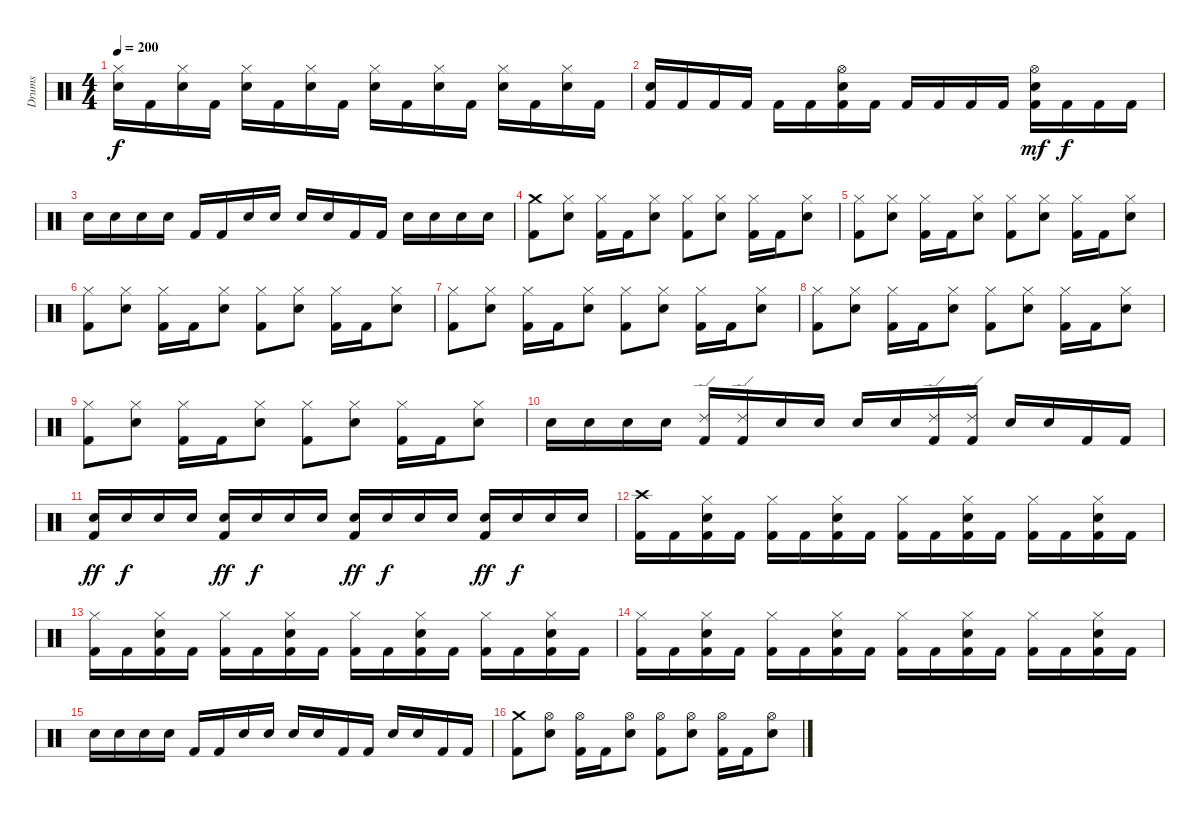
\track ("Drums" "Drums") {instrument percussion}
\staff {score}
\articulation defaults
\ts (4 4)
\tempo 200
\clef neutral
\ks c
("Snare (hit) 2" "Hi-Hat (closed)").16{dy f} "Kick (hit) 2".16 ("Snare (hit) 2" "Hi-Hat (closed)").16 "Kick (hit) 2".16 ("Snare (hit) 2" "Hi-Hat (closed)").16 "Kick (hit) 2".16 ("Snare (hit) 2" "Hi-Hat (closed)").16 "Kick (hit) 2".16 ("Snare (hit) 2" "Hi-Hat (closed)").16 "Kick (hit) 2".16 ("Snare (hit) 2" "Hi-Hat (closed)").16 "Kick (hit) 2".16 ("Snare (hit) 2" "Hi-Hat (closed)").16 "Kick (hit) 2".16 ("Snare (hit) 2" "Hi-Hat (closed)").16 "Kick (hit) 2".16 |
("Kick (hit) 2" "Snare (hit) 2").16 "Kick (hit) 2".16 "Kick (hit) 2".16 "Kick (hit) 2".16 "Kick (hit) 2".16 "Kick (hit) 2".16 ("Kick (hit) 2" "Snare (hit) 2" "Hi-Hat (open)").16 "Kick (hit) 2".16 "Kick (hit) 2".16 "Kick (hit) 2".16 "Kick (hit) 2".16 "Kick (hit) 2".16 ("Kick (hit) 2" "Snare (hit) 2" "Hi-Hat (open)").16{dy mf} "Kick (hit) 2".16{dy f} "Kick (hit) 2".16 "Kick (hit) 2".16 |
"Snare (hit) 2".16 "Snare (hit) 2".16 "Snare (hit) 2".16 "Snare (hit) 2".16 "Kick (hit) 2".16 "Kick (hit) 2".16 "Snare (hit) 2".16 "Snare (hit) 2".16 "Snare (hit) 2".16 "Snare (hit) 2".16 "Kick (hit) 2".16 "Kick (hit) 2".16 "Snare (hit) 2".16 "Snare (hit) 2".16 "Snare (hit) 2".16 "Snare (hit) 2".16 |
\section ("" "")
("Kick (hit) 2" "Crash medium (hit)").8 ("Snare (hit) 2" "Hi-Hat (closed)").8 ("Kick (hit) 2" "Hi-Hat (closed)").16 "Kick (hit) 2".16 ("Snare (hit) 2" "Hi-Hat (closed)").8 ("Kick (hit) 2" "Hi-Hat (closed)").8 ("Snare (hit) 2" "Hi-Hat (closed)").8 ("Kick (hit) 2" "Hi-Hat (closed)").16 "Kick (hit) 2".16 ("Snare (hit) 2" "Hi-Hat (closed)").8 |
("Kick (hit) 2" "Hi-Hat (closed)").8 ("Snare (hit) 2" "Hi-Hat (closed)").8 ("Kick (hit) 2" "Hi-Hat (closed)").16 "Kick (hit) 2".16 ("Snare (hit) 2" "Hi-Hat (closed)").8 ("Kick (hit) 2" "Hi-Hat (closed)").8 ("Snare (hit) 2" "Hi-Hat (closed)").8 ("Kick (hit) 2" "Hi-Hat (closed)").16 "Kick (hit) 2".16 ("Snare (hit) 2" "Hi-Hat (closed)").8 |
("Kick (hit) 2" "Hi-Hat (closed)").8 ("Snare (hit) 2" "Hi-Hat (closed)").8 ("Kick (hit) 2" "Hi-Hat (closed)").16 "Kick (hit) 2".16 ("Snare (hit) 2" "Hi-Hat (closed)").8 ("Kick (hit) 2" "Hi-Hat (closed)").8 ("Snare (hit) 2" "Hi-Hat (closed)").8 ("Kick (hit) 2" "Hi-Hat (closed)").16 "Kick (hit) 2".16 ("Snare (hit) 2" "Hi-Hat (closed)").8 |
("Kick (hit) 2" "Hi-Hat (closed)").8 ("Snare (hit) 2" "Hi-Hat (closed)").8 ("Kick (hit) 2" "Hi-Hat (closed)").16 "Kick (hit) 2".16 ("Snare (hit) 2" "Hi-Hat (closed)").8 ("Kick (hit) 2" "Hi-Hat (closed)").8 ("Snare (hit) 2" "Hi-Hat (closed)").8 ("Kick (hit) 2" "Hi-Hat (closed)").16 "Kick (hit) 2".16 ("Snare (hit) 2" "Hi-Hat (closed)").8 |
("Kick (hit) 2" "Hi-Hat (closed)").8 ("Snare (hit) 2" "Hi-Hat (closed)").8 ("Kick (hit) 2" "Hi-Hat (closed)").16 "Kick (hit) 2".16 ("Snare (hit) 2" "Hi-Hat (closed)").8 ("Kick (hit) 2" "Hi-Hat (closed)").8 ("Snare (hit) 2" "Hi-Hat (closed)").8 ("Kick (hit) 2" "Hi-Hat (closed)").16 "Kick (hit) 2".16 ("Snare (hit) 2" "Hi-Hat (closed)").8 |
("Kick (hit) 2" "Hi-Hat (closed)").8 ("Snare (hit) 2" "Hi-Hat (closed)").8 ("Kick (hit) 2" "Hi-Hat (closed)").16 "Kick (hit) 2".16 ("Snare (hit) 2" "Hi-Hat (closed)").8 ("Kick (hit) 2" "Hi-Hat (closed)").8 ("Snare (hit) 2" "Hi-Hat (closed)").8 ("Kick (hit) 2" "Hi-Hat (closed)").16 "Kick (hit) 2".16 ("Snare (hit) 2" "Hi-Hat (closed)").8 |
"Snare (hit) 2".16 "Snare (hit) 2".16 "Snare (hit) 2".16 "Snare (hit) 2".16 ("Kick (hit) 2" "Ride (edge) 2").16 ("Kick (hit) 2" "Ride (edge) 2").16 "Snare (hit) 2".16 "Snare (hit) 2".16 "Snare (hit) 2".16 "Snare (hit) 2".16 ("Kick (hit) 2" "Ride (edge) 2").16 ("Kick (hit) 2" "Ride (edge) 2").16 "Snare (hit) 2".16 "Snare (hit) 2".16 "Kick (hit) 2".16 "Kick (hit) 2".16 |
("Kick (hit) 2" "Snare (hit) 2").16{dy ff} "Snare (hit) 2".16{dy f} "Snare (hit) 2".16 "Snare (hit) 2".16 ("Kick (hit) 2" "Snare (hit) 2").16{dy ff} "Snare (hit) 2".16{dy f} "Snare (hit) 2".16 "Snare (hit) 2".16 ("Kick (hit) 2" "Snare (hit) 2").16{dy ff} "Snare (hit) 2".16{dy f} "Snare (hit) 2".16 "Snare (hit) 2".16 ("Kick (hit) 2" "Snare (hit) 2").16{dy ff} "Snare (hit) 2".16{dy f} "Snare (hit) 2".16 "Snare (hit) 2".16 |
("Kick (hit) 2" "Crash high (hit)").16 "Kick (hit) 2".16 ("Kick (hit) 2" "Snare (hit) 2" "Hi-Hat (closed)").16 "Kick (hit) 2".16 ("Kick (hit) 2" "Hi-Hat (closed)").16 "Kick (hit) 2".16 ("Kick (hit) 2" "Snare (hit) 2" "Hi-Hat (closed)").16 "Kick (hit) 2".16 ("Kick (hit) 2" "Hi-Hat (closed)").16 "Kick (hit) 2".16 ("Kick (hit) 2" "Snare (hit) 2" "Hi-Hat (closed)").16 "Kick (hit) 2".16 ("Kick (hit) 2" "Hi-Hat (closed)").16 "Kick (hit) 2".16 ("Kick (hit) 2" "Snare (hit) 2" "Hi-Hat (closed)").16 "Kick (hit) 2".16 |
("Kick (hit) 2" "Hi-Hat (closed)").16 "Kick (hit) 2".16 ("Kick (hit) 2" "Snare (hit) 2" "Hi-Hat (closed)").16 "Kick (hit) 2".16 ("Kick (hit) 2" "Hi-Hat (closed)").16 "Kick (hit) 2".16 ("Kick (hit) 2" "Snare (hit) 2" "Hi-Hat (closed)").16 "Kick (hit) 2".16 ("Kick (hit) 2" "Hi-Hat (closed)").16 "Kick (hit) 2".16 ("Kick (hit) 2" "Snare (hit) 2" "Hi-Hat (closed)").16 "Kick (hit) 2".16 ("Kick (hit) 2" "Hi-Hat (closed)").16 "Kick (hit) 2".16 ("Kick (hit) 2" "Snare (hit) 2" "Hi-Hat (closed)").16 "Kick (hit) 2".16 |
("Kick (hit) 2" "Hi-Hat (closed)").16 "Kick (hit) 2".16 ("Kick (hit) 2" "Snare (hit) 2" "Hi-Hat (closed)").16 "Kick (hit) 2".16 ("Kick (hit) 2" "Hi-Hat (closed)").16 "Kick (hit) 2".16 ("Kick (hit) 2" "Snare (hit) 2" "Hi-Hat (closed)").16 "Kick (hit) 2".16 ("Kick (hit) 2" "Hi-Hat (closed)").16 "Kick (hit) 2".16 ("Kick (hit) 2" "Snare (hit) 2" "Hi-Hat (closed)").16 "Kick (hit) 2".16 ("Kick (hit) 2" "Hi-Hat (closed)").16 "Kick (hit) 2".16 ("Kick (hit) 2" "Snare (hit) 2" "Hi-Hat (closed)").16 "Kick (hit) 2".16 |
"Snare (hit) 2".16 "Snare (hit) 2".16 "Snare (hit) 2".16 "Snare (hit) 2".16 "Kick (hit) 2".16 "Kick (hit) 2".16 "Snare (hit) 2".16 "Snare (hit) 2".16 "Snare (hit) 2".16 "Snare (hit) 2".16 "Kick (hit) 2".16 "Kick (hit) 2".16 "Snare (hit) 2".16 "Snare (hit) 2".16 "Kick (hit) 2".16 "Kick (hit) 2".16 |
\section ("" "")
("Kick (hit) 2" "Crash medium (hit)").8 ("Snare (hit) 2" "Hi-Hat (open)").8 ("Kick (hit) 2" "Hi-Hat (open)").16 "Kick (hit) 2".16 ("Snare (hit) 2" "Hi-Hat (open)").8 ("Kick (hit) 2" "Hi-Hat (open)").8 ("Snare (hit) 2" "Hi-Hat (open)").8 ("Kick (hit) 2" "Hi-Hat (open)").16 "Kick (hit) 2".16 ("Snare (hit) 2" "Hi-Hat (open)").8
